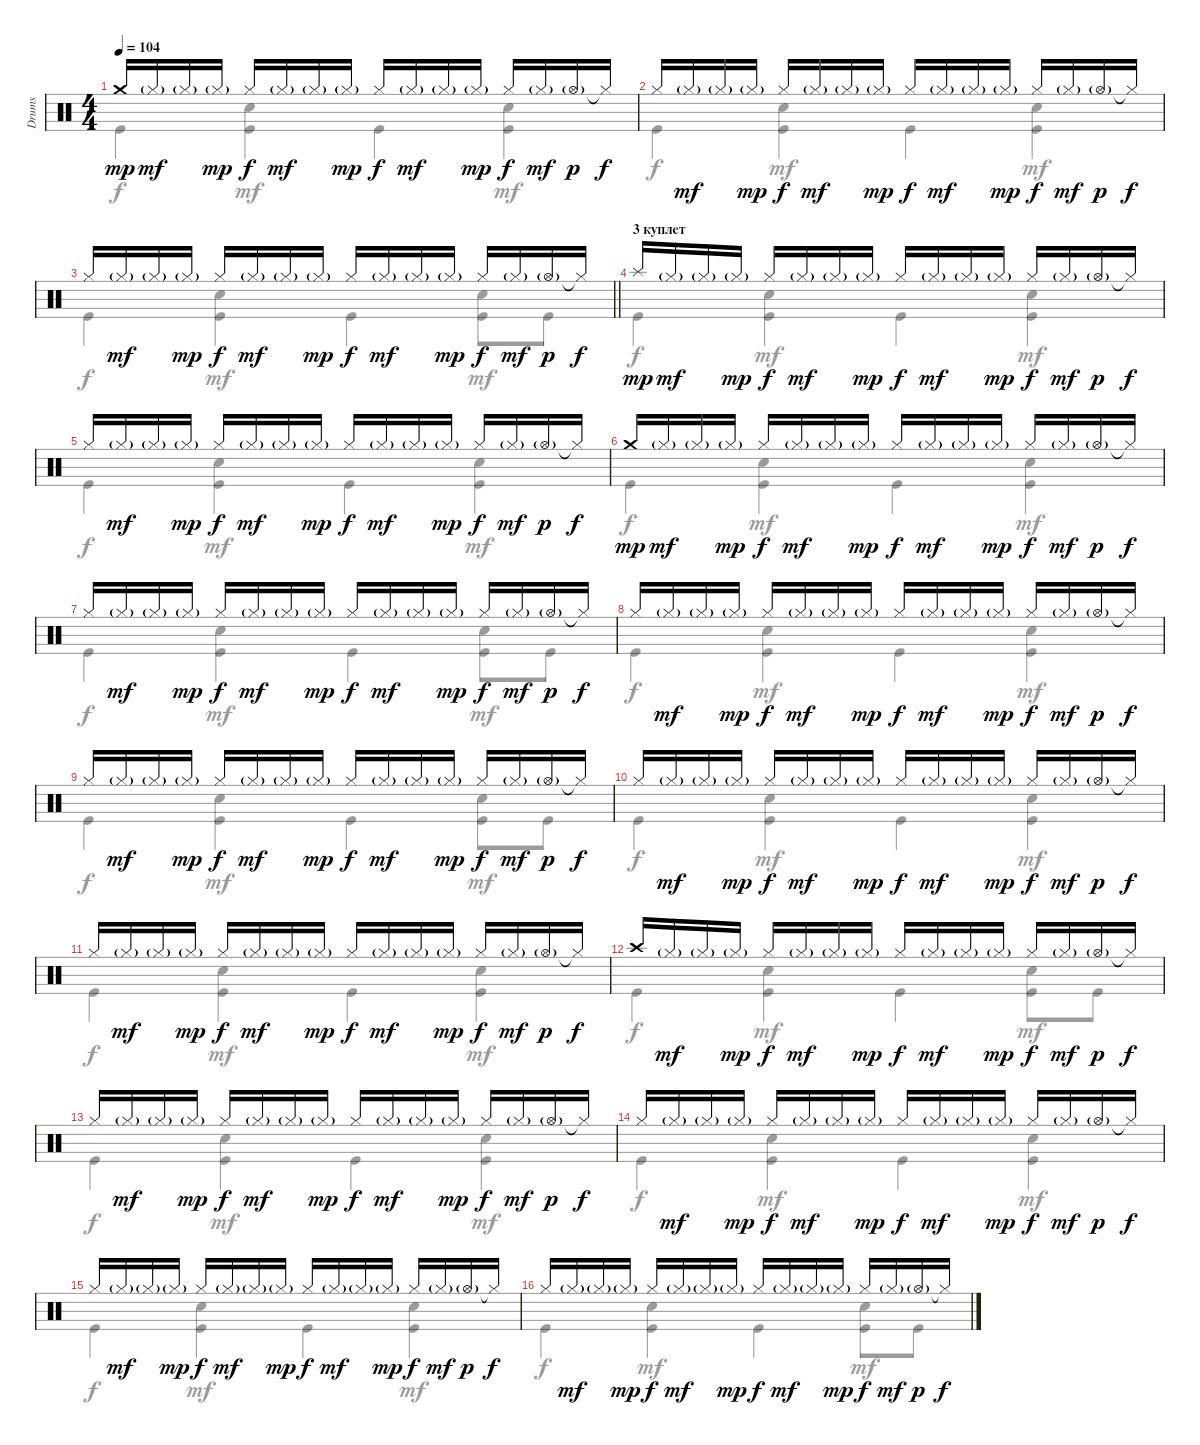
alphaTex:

\track ("Drums" "Drums") {instrument percussion}
\staff {score}
\articulation defaults
\voice
\ts (4 4)
\tempo 104
\clef neutral
\ks c "Crash medium (hit)".16{dy mp} "Hi-Hat (closed)"{g}.16{dy mf} "Hi-Hat (closed)"{g}.16 "Hi-Hat (closed)"{g}.16{dy mp} "Hi-Hat (closed)".16{dy f} "Hi-Hat (closed)"{g}.16{dy mf} "Hi-Hat (closed)"{g}.16 "Hi-Hat (closed)"{g}.16{dy mp} "Hi-Hat (closed)".16{dy f} "Hi-Hat (closed)"{g}.16{dy mf} "Hi-Hat (closed)"{g}.16 "Hi-Hat (closed)"{g}.16{dy mp} "Hi-Hat (closed)".16{dy f} "Hi-Hat (closed)"{g}.16{dy mf} "Hi-Hat (open)"{g}.16{dy p} "Hi-Hat (closed)"{t}.16{dy f}
|
"Hi-Hat (closed)".16 "Hi-Hat (closed)"{g}.16{dy mf} "Hi-Hat (closed)"{g}.16 "Hi-Hat (closed)"{g}.16{dy mp} "Hi-Hat (closed)".16{dy f} "Hi-Hat (closed)"{g}.16{dy mf} "Hi-Hat (closed)"{g}.16 "Hi-Hat (closed)"{g}.16{dy mp} "Hi-Hat (closed)".16{dy f} "Hi-Hat (closed)"{g}.16{dy mf} "Hi-Hat (closed)"{g}.16 "Hi-Hat (closed)"{g}.16{dy mp} "Hi-Hat (closed)".16{dy f} "Hi-Hat (closed)"{g}.16{dy mf} "Hi-Hat (open)"{g}.16{dy p} "Hi-Hat (closed)"{t}.16{dy f} |
\barLineRight lightlight "Hi-Hat (closed)".16 "Hi-Hat (closed)"{g}.16{dy mf} "Hi-Hat (closed)"{g}.16 "Hi-Hat (closed)"{g}.16{dy mp} "Hi-Hat (closed)".16{dy f} "Hi-Hat (closed)"{g}.16{dy mf} "Hi-Hat (closed)"{g}.16 "Hi-Hat (closed)"{g}.16{dy mp} "Hi-Hat (closed)".16{dy f} "Hi-Hat (closed)"{g}.16{dy mf} "Hi-Hat (closed)"{g}.16 "Hi-Hat (closed)"{g}.16{dy mp} "Hi-Hat (closed)".16{dy f} "Hi-Hat (closed)"{g}.16{dy mf} "Hi-Hat (open)"{g}.16{dy p} "Hi-Hat (closed)"{t}.16{dy f}
|
\section ("" "3 куплет")
"Splash (hit)".16{dy mp} "Hi-Hat (closed)"{g}.16{dy mf} "Hi-Hat (closed)"{g}.16 "Hi-Hat (closed)"{g}.16{dy mp} "Hi-Hat (closed)".16{dy f} "Hi-Hat (closed)"{g}.16{dy mf} "Hi-Hat (closed)"{g}.16 "Hi-Hat (closed)"{g}.16{dy mp} "Hi-Hat (closed)".16{dy f} "Hi-Hat (closed)"{g}.16{dy mf} "Hi-Hat (closed)"{g}.16 "Hi-Hat (closed)"{g}.16{dy mp} "Hi-Hat (closed)".16{dy f} "Hi-Hat (closed)"{g}.16{dy mf} "Hi-Hat (open)"{g}.16{dy p} "Hi-Hat (closed)"{t}.16{dy f} |
"Hi-Hat (closed)".16 "Hi-Hat (closed)"{g}.16{dy mf} "Hi-Hat (closed)"{g}.16 "Hi-Hat (closed)"{g}.16{dy mp} "Hi-Hat (closed)".16{dy f} "Hi-Hat (closed)"{g}.16{dy mf} "Hi-Hat (closed)"{g}.16 "Hi-Hat (closed)"{g}.16{dy mp} "Hi-Hat (closed)".16{dy f} "Hi-Hat (closed)"{g}.16{dy mf} "Hi-Hat (closed)"{g}.16 "Hi-Hat (closed)"{g}.16{dy mp} "Hi-Hat (closed)".16{dy f} "Hi-Hat (closed)"{g}.16{dy mf} "Hi-Hat (open)"{g}.16{dy p} "Hi-Hat (closed)"{t}.16{dy f} |
"Crash medium (hit)".16{dy mp} "Hi-Hat (closed)"{g}.16{dy mf} "Hi-Hat (closed)"{g}.16 "Hi-Hat (closed)"{g}.16{dy mp} "Hi-Hat (closed)".16{dy f} "Hi-Hat (closed)"{g}.16{dy mf} "Hi-Hat (closed)"{g}.16 "Hi-Hat (closed)"{g}.16{dy mp} "Hi-Hat (closed)".16{dy f} "Hi-Hat (closed)"{g}.16{dy mf} "Hi-Hat (closed)"{g}.16 "Hi-Hat (closed)"{g}.16{dy mp} "Hi-Hat (closed)".16{dy f} "Hi-Hat (closed)"{g}.16{dy mf} "Hi-Hat (open)"{g}.16{dy p} "Hi-Hat (closed)"{t}.16{dy f} |
"Hi-Hat (closed)".16 "Hi-Hat (closed)"{g}.16{dy mf} "Hi-Hat (closed)"{g}.16 "Hi-Hat (closed)"{g}.16{dy mp} "Hi-Hat (closed)".16{dy f} "Hi-Hat (closed)"{g}.16{dy mf} "Hi-Hat (closed)"{g}.16 "Hi-Hat (closed)"{g}.16{dy mp} "Hi-Hat (closed)".16{dy f} "Hi-Hat (closed)"{g}.16{dy mf} "Hi-Hat (closed)"{g}.16 "Hi-Hat (closed)"{g}.16{dy mp} "Hi-Hat (closed)".16{dy f} "Hi-Hat (closed)"{g}.16{dy mf} "Hi-Hat (open)"{g}.16{dy p} "Hi-Hat (closed)"{t}.16{dy f} |
"Hi-Hat (closed)".16 "Hi-Hat (closed)"{g}.16{dy mf} "Hi-Hat (closed)"{g}.16 "Hi-Hat (closed)"{g}.16{dy mp} "Hi-Hat (closed)".16{dy f} "Hi-Hat (closed)"{g}.16{dy mf} "Hi-Hat (closed)"{g}.16 "Hi-Hat (closed)"{g}.16{dy mp} "Hi-Hat (closed)".16{dy f} "Hi-Hat (closed)"{g}.16{dy mf} "Hi-Hat (closed)"{g}.16 "Hi-Hat (closed)"{g}.16{dy mp} "Hi-Hat (closed)".16{dy f} "Hi-Hat (closed)"{g}.16{dy mf} "Hi-Hat (open)"{g}.16{dy p} "Hi-Hat (closed)"{t}.16{dy f} |
"Hi-Hat (closed)".16 "Hi-Hat (closed)"{g}.16{dy mf} "Hi-Hat (closed)"{g}.16 "Hi-Hat (closed)"{g}.16{dy mp} "Hi-Hat (closed)".16{dy f} "Hi-Hat (closed)"{g}.16{dy mf} "Hi-Hat (closed)"{g}.16 "Hi-Hat (closed)"{g}.16{dy mp} "Hi-Hat (closed)".16{dy f} "Hi-Hat (closed)"{g}.16{dy mf} "Hi-Hat (closed)"{g}.16 "Hi-Hat (closed)"{g}.16{dy mp} "Hi-Hat (closed)".16{dy f} "Hi-Hat (closed)"{g}.16{dy mf} "Hi-Hat (open)"{g}.16{dy p} "Hi-Hat (closed)"{t}.16{dy f} |
"Hi-Hat (closed)".16 "Hi-Hat (closed)"{g}.16{dy mf} "Hi-Hat (closed)"{g}.16 "Hi-Hat (closed)"{g}.16{dy mp} "Hi-Hat (closed)".16{dy f} "Hi-Hat (closed)"{g}.16{dy mf} "Hi-Hat (closed)"{g}.16 "Hi-Hat (closed)"{g}.16{dy mp} "Hi-Hat (closed)".16{dy f} "Hi-Hat (closed)"{g}.16{dy mf} "Hi-Hat (closed)"{g}.16 "Hi-Hat (closed)"{g}.16{dy mp} "Hi-Hat (closed)".16{dy f} "Hi-Hat (closed)"{g}.16{dy mf} "Hi-Hat (open)"{g}.16{dy p} "Hi-Hat (closed)"{t}.16{dy f} |
"Hi-Hat (closed)".16 "Hi-Hat (closed)"{g}.16{dy mf} "Hi-Hat (closed)"{g}.16 "Hi-Hat (closed)"{g}.16{dy mp} "Hi-Hat (closed)".16{dy f} "Hi-Hat (closed)"{g}.16{dy mf} "Hi-Hat (closed)"{g}.16 "Hi-Hat (closed)"{g}.16{dy mp} "Hi-Hat (closed)".16{dy f} "Hi-Hat (closed)"{g}.16{dy mf} "Hi-Hat (closed)"{g}.16 "Hi-Hat (closed)"{g}.16{dy mp} "Hi-Hat (closed)".16{dy f} "Hi-Hat (closed)"{g}.16{dy mf} "Hi-Hat (open)"{g}.16{dy p} "Hi-Hat (closed)"{t}.16{dy f} |
"Crash high (hit)".16 "Hi-Hat (closed)"{g}.16{dy mf} "Hi-Hat (closed)"{g}.16 "Hi-Hat (closed)"{g}.16{dy mp} "Hi-Hat (closed)".16{dy f} "Hi-Hat (closed)"{g}.16{dy mf} "Hi-Hat (closed)"{g}.16 "Hi-Hat (closed)"{g}.16{dy mp} "Hi-Hat (closed)".16{dy f} "Hi-Hat (closed)"{g}.16{dy mf} "Hi-Hat (closed)"{g}.16 "Hi-Hat (closed)"{g}.16{dy mp} "Hi-Hat (closed)".16{dy f} "Hi-Hat (closed)"{g}.16{dy mf} "Hi-Hat (open)"{g}.16{dy p} "Hi-Hat (closed)"{t}.16{dy f} |
"Hi-Hat (closed)".16 "Hi-Hat (closed)"{g}.16{dy mf} "Hi-Hat (closed)"{g}.16 "Hi-Hat (closed)"{g}.16{dy mp} "Hi-Hat (closed)".16{dy f} "Hi-Hat (closed)"{g}.16{dy mf} "Hi-Hat (closed)"{g}.16 "Hi-Hat (closed)"{g}.16{dy mp} "Hi-Hat (closed)".16{dy f} "Hi-Hat (closed)"{g}.16{dy mf} "Hi-Hat (closed)"{g}.16 "Hi-Hat (closed)"{g}.16{dy mp} "Hi-Hat (closed)".16{dy f} "Hi-Hat (closed)"{g}.16{dy mf} "Hi-Hat (open)"{g}.16{dy p} "Hi-Hat (closed)"{t}.16{dy f} |
"Hi-Hat (closed)".16 "Hi-Hat (closed)"{g}.16{dy mf} "Hi-Hat (closed)"{g}.16 "Hi-Hat (closed)"{g}.16{dy mp} "Hi-Hat (closed)".16{dy f} "Hi-Hat (closed)"{g}.16{dy mf} "Hi-Hat (closed)"{g}.16 "Hi-Hat (closed)"{g}.16{dy mp} "Hi-Hat (closed)".16{dy f} "Hi-Hat (closed)"{g}.16{dy mf} "Hi-Hat (closed)"{g}.16 "Hi-Hat (closed)"{g}.16{dy mp} "Hi-Hat (closed)".16{dy f} "Hi-Hat (closed)"{g}.16{dy mf} "Hi-Hat (open)"{g}.16{dy p} "Hi-Hat (closed)"{t}.16{dy f} |
"Hi-Hat (closed)".16 "Hi-Hat (closed)"{g}.16{dy mf} "Hi-Hat (closed)"{g}.16 "Hi-Hat (closed)"{g}.16{dy mp} "Hi-Hat (closed)".16{dy f} "Hi-Hat (closed)"{g}.16{dy mf} "Hi-Hat (closed)"{g}.16 "Hi-Hat (closed)"{g}.16{dy mp} "Hi-Hat (closed)".16{dy f} "Hi-Hat (closed)"{g}.16{dy mf} "Hi-Hat (closed)"{g}.16 "Hi-Hat (closed)"{g}.16{dy mp} "Hi-Hat (closed)".16{dy f} "Hi-Hat (closed)"{g}.16{dy mf} "Hi-Hat (open)"{g}.16{dy p} "Hi-Hat (closed)"{t}.16{dy f} |
"Hi-Hat (closed)".16 "Hi-Hat (closed)"{g}.16{dy mf} "Hi-Hat (closed)"{g}.16 "Hi-Hat (closed)"{g}.16{dy mp} "Hi-Hat (closed)".16{dy f} "Hi-Hat (closed)"{g}.16{dy mf} "Hi-Hat (closed)"{g}.16 "Hi-Hat (closed)"{g}.16{dy mp} "Hi-Hat (closed)".16{dy f} "Hi-Hat (closed)"{g}.16{dy mf} "Hi-Hat (closed)"{g}.16 "Hi-Hat (closed)"{g}.16{dy mp} "Hi-Hat (closed)".16{dy f} "Hi-Hat (closed)"{g}.16{dy mf} "Hi-Hat (open)"{g}.16{dy p} "Hi-Hat (closed)"{t}.16{dy f}
\voice
\clef neutral
\ottava regular
\simile none
\ks c "Kick (hit)".4{dy f}
("Snare (hit) 2" "Kick (hit)").4{dy mf} "Kick (hit)".4{dy f} ("Snare (hit) 2" "Kick (hit)").4{dy mf} |
"Kick (hit)".4{dy f} ("Snare (hit) 2" "Kick (hit)").4{dy mf} "Kick (hit)".4{dy f} ("Snare (hit) 2" "Kick (hit)").4{dy mf} |
\barLineRight lightlight "Kick (hit)".4{dy f}
("Snare (hit) 2" "Kick (hit)").4{dy mf} "Kick (hit)".4{dy f} ("Snare (hit) 2" "Kick (hit)").8{dy mf} "Kick (hit)".8 |
"Kick (hit)".4{dy f} ("Snare (hit) 2" "Kick (hit)").4{dy mf} "Kick (hit)".4{dy f} ("Snare (hit) 2" "Kick (hit)").4{dy mf} |
"Kick (hit)".4{dy f} ("Snare (hit) 2" "Kick (hit)").4{dy mf} "Kick (hit)".4{dy f} ("Snare (hit) 2" "Kick (hit)").4{dy mf} |
"Kick (hit)".4{dy f} ("Snare (hit) 2" "Kick (hit)").4{dy mf} "Kick (hit)".4{dy f} ("Snare (hit) 2" "Kick (hit)").4{dy mf} |
"Kick (hit)".4{dy f} ("Snare (hit) 2" "Kick (hit)").4{dy mf} "Kick (hit)".4{dy f} ("Snare (hit) 2" "Kick (hit)").8{dy mf} "Kick (hit)".8 |
"Kick (hit)".4{dy f} ("Snare (hit) 2" "Kick (hit)").4{dy mf} "Kick (hit)".4{dy f} ("Snare (hit) 2" "Kick (hit)").4{dy mf} |
"Kick (hit)".4{dy f} ("Snare (hit) 2" "Kick (hit)").4{dy mf} "Kick (hit)".4{dy f} ("Snare (hit) 2" "Kick (hit)").8{dy mf} "Kick (hit)".8 |
"Kick (hit)".4{dy f} ("Snare (hit) 2" "Kick (hit)").4{dy mf} "Kick (hit)".4{dy f} ("Snare (hit) 2" "Kick (hit)").4{dy mf} |
"Kick (hit)".4{dy f} ("Snare (hit) 2" "Kick (hit)").4{dy mf} "Kick (hit)".4{dy f} ("Snare (hit) 2" "Kick (hit)").4{dy mf} |
"Kick (hit)".4{dy f} ("Snare (hit) 2" "Kick (hit)").4{dy mf} "Kick (hit)".4{dy f} ("Snare (hit) 2" "Kick (hit)").8{dy mf} "Kick (hit)".8 |
"Kick (hit)".4{dy f} ("Snare (hit) 2" "Kick (hit)").4{dy mf} "Kick (hit)".4{dy f} ("Snare (hit) 2" "Kick (hit)").4{dy mf} |
"Kick (hit)".4{dy f} ("Snare (hit) 2" "Kick (hit)").4{dy mf} "Kick (hit)".4{dy f} ("Snare (hit) 2" "Kick (hit)").4{dy mf} |
"Kick (hit)".4{dy f} ("Snare (hit) 2" "Kick (hit)").4{dy mf} "Kick (hit)".4{dy f} ("Snare (hit) 2" "Kick (hit)").4{dy mf} |
"Kick (hit)".4{dy f} ("Snare (hit) 2" "Kick (hit)").4{dy mf} "Kick (hit)".4{dy f} ("Snare (hit) 2" "Kick (hit)").8{dy mf} "Kick (hit)".8
